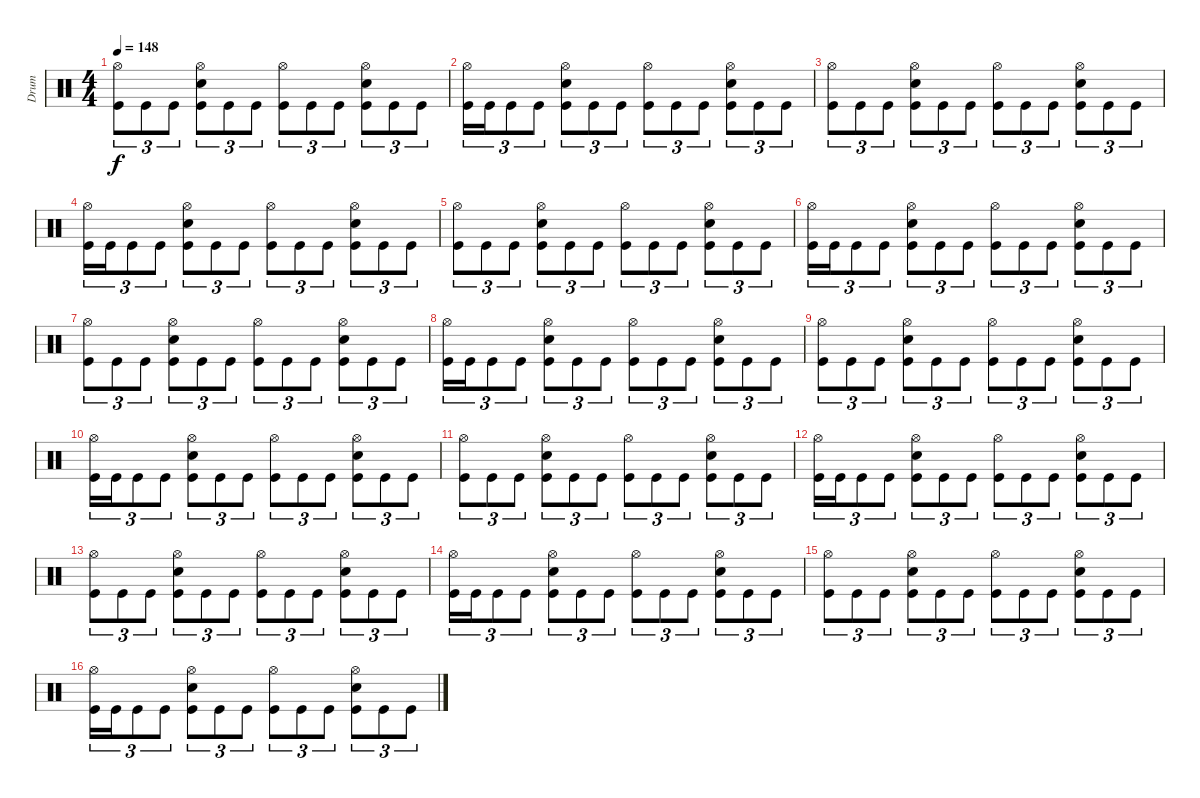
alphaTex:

\track ("Drum" "Drum") {instrument percussion}
\staff {score}
\articulation defaults
\ts (4 4)
\tempo 148
\clef neutral
\ks c
("Hi-Hat (open)" "Kick (hit)").8{tu (3 2) dy f} "Kick (hit)".8{tu (3 2)} "Kick (hit)".8{tu (3 2)} ("Hi-Hat (open)" "Snare (hit) 2" "Kick (hit)").8{tu (3 2)} "Kick (hit)".8{tu (3 2)} "Kick (hit)".8{tu (3 2)} ("Hi-Hat (open)" "Kick (hit)").8{tu (3 2)} "Kick (hit)".8{tu (3 2)} "Kick (hit)".8{tu (3 2)} ("Hi-Hat (open)" "Snare (hit) 2" "Kick (hit)").8{tu (3 2)} "Kick (hit)".8{tu (3 2)} "Kick (hit)".8{tu (3 2)} |
("Hi-Hat (open)" "Kick (hit)").16{tu (3 2)} "Kick (hit)".16{tu (3 2)} "Kick (hit)".8{tu (3 2)} "Kick (hit)".8{tu (3 2)} ("Hi-Hat (open)" "Snare (hit) 2" "Kick (hit)").8{tu (3 2)} "Kick (hit)".8{tu (3 2)} "Kick (hit)".8{tu (3 2)} ("Hi-Hat (open)" "Kick (hit)").8{tu (3 2)} "Kick (hit)".8{tu (3 2)} "Kick (hit)".8{tu (3 2)} ("Hi-Hat (open)" "Snare (hit) 2" "Kick (hit)").8{tu (3 2)} "Kick (hit)".8{tu (3 2)} "Kick (hit)".8{tu (3 2)} |
("Hi-Hat (open)" "Kick (hit)").8{tu (3 2)} "Kick (hit)".8{tu (3 2)} "Kick (hit)".8{tu (3 2)} ("Hi-Hat (open)" "Snare (hit) 2" "Kick (hit)").8{tu (3 2)} "Kick (hit)".8{tu (3 2)} "Kick (hit)".8{tu (3 2)} ("Hi-Hat (open)" "Kick (hit)").8{tu (3 2)} "Kick (hit)".8{tu (3 2)} "Kick (hit)".8{tu (3 2)} ("Hi-Hat (open)" "Snare (hit) 2" "Kick (hit)").8{tu (3 2)} "Kick (hit)".8{tu (3 2)} "Kick (hit)".8{tu (3 2)} |
("Hi-Hat (open)" "Kick (hit)").16{tu (3 2)} "Kick (hit)".16{tu (3 2)} "Kick (hit)".8{tu (3 2)} "Kick (hit)".8{tu (3 2)} ("Hi-Hat (open)" "Snare (hit) 2" "Kick (hit)").8{tu (3 2)} "Kick (hit)".8{tu (3 2)} "Kick (hit)".8{tu (3 2)} ("Hi-Hat (open)" "Kick (hit)").8{tu (3 2)} "Kick (hit)".8{tu (3 2)} "Kick (hit)".8{tu (3 2)} ("Hi-Hat (open)" "Snare (hit) 2" "Kick (hit)").8{tu (3 2)} "Kick (hit)".8{tu (3 2)} "Kick (hit)".8{tu (3 2)} |
("Hi-Hat (open)" "Kick (hit)").8{tu (3 2)} "Kick (hit)".8{tu (3 2)} "Kick (hit)".8{tu (3 2)} ("Hi-Hat (open)" "Snare (hit) 2" "Kick (hit)").8{tu (3 2)} "Kick (hit)".8{tu (3 2)} "Kick (hit)".8{tu (3 2)} ("Hi-Hat (open)" "Kick (hit)").8{tu (3 2)} "Kick (hit)".8{tu (3 2)} "Kick (hit)".8{tu (3 2)} ("Hi-Hat (open)" "Snare (hit) 2" "Kick (hit)").8{tu (3 2)} "Kick (hit)".8{tu (3 2)} "Kick (hit)".8{tu (3 2)} |
("Hi-Hat (open)" "Kick (hit)").16{tu (3 2)} "Kick (hit)".16{tu (3 2)} "Kick (hit)".8{tu (3 2)} "Kick (hit)".8{tu (3 2)} ("Hi-Hat (open)" "Snare (hit) 2" "Kick (hit)").8{tu (3 2)} "Kick (hit)".8{tu (3 2)} "Kick (hit)".8{tu (3 2)} ("Hi-Hat (open)" "Kick (hit)").8{tu (3 2)} "Kick (hit)".8{tu (3 2)} "Kick (hit)".8{tu (3 2)} ("Hi-Hat (open)" "Snare (hit) 2" "Kick (hit)").8{tu (3 2)} "Kick (hit)".8{tu (3 2)} "Kick (hit)".8{tu (3 2)} |
("Hi-Hat (open)" "Kick (hit)").8{tu (3 2)} "Kick (hit)".8{tu (3 2)} "Kick (hit)".8{tu (3 2)} ("Hi-Hat (open)" "Snare (hit) 2" "Kick (hit)").8{tu (3 2)} "Kick (hit)".8{tu (3 2)} "Kick (hit)".8{tu (3 2)} ("Hi-Hat (open)" "Kick (hit)").8{tu (3 2)} "Kick (hit)".8{tu (3 2)} "Kick (hit)".8{tu (3 2)} ("Hi-Hat (open)" "Snare (hit) 2" "Kick (hit)").8{tu (3 2)} "Kick (hit)".8{tu (3 2)} "Kick (hit)".8{tu (3 2)} |
("Hi-Hat (open)" "Kick (hit)").16{tu (3 2)} "Kick (hit)".16{tu (3 2)} "Kick (hit)".8{tu (3 2)} "Kick (hit)".8{tu (3 2)} ("Hi-Hat (open)" "Snare (hit) 2" "Kick (hit)").8{tu (3 2)} "Kick (hit)".8{tu (3 2)} "Kick (hit)".8{tu (3 2)} ("Hi-Hat (open)" "Kick (hit)").8{tu (3 2)} "Kick (hit)".8{tu (3 2)} "Kick (hit)".8{tu (3 2)} ("Hi-Hat (open)" "Snare (hit) 2" "Kick (hit)").8{tu (3 2)} "Kick (hit)".8{tu (3 2)} "Kick (hit)".8{tu (3 2)} |
("Hi-Hat (open)" "Kick (hit)").8{tu (3 2)} "Kick (hit)".8{tu (3 2)} "Kick (hit)".8{tu (3 2)} ("Hi-Hat (open)" "Snare (hit) 2" "Kick (hit)").8{tu (3 2)} "Kick (hit)".8{tu (3 2)} "Kick (hit)".8{tu (3 2)} ("Hi-Hat (open)" "Kick (hit)").8{tu (3 2)} "Kick (hit)".8{tu (3 2)} "Kick (hit)".8{tu (3 2)} ("Hi-Hat (open)" "Snare (hit) 2" "Kick (hit)").8{tu (3 2)} "Kick (hit)".8{tu (3 2)} "Kick (hit)".8{tu (3 2)} |
("Hi-Hat (open)" "Kick (hit)").16{tu (3 2)} "Kick (hit)".16{tu (3 2)} "Kick (hit)".8{tu (3 2)} "Kick (hit)".8{tu (3 2)} ("Hi-Hat (open)" "Snare (hit) 2" "Kick (hit)").8{tu (3 2)} "Kick (hit)".8{tu (3 2)} "Kick (hit)".8{tu (3 2)} ("Hi-Hat (open)" "Kick (hit)").8{tu (3 2)} "Kick (hit)".8{tu (3 2)} "Kick (hit)".8{tu (3 2)} ("Hi-Hat (open)" "Snare (hit) 2" "Kick (hit)").8{tu (3 2)} "Kick (hit)".8{tu (3 2)} "Kick (hit)".8{tu (3 2)} |
("Hi-Hat (open)" "Kick (hit)").8{tu (3 2)} "Kick (hit)".8{tu (3 2)} "Kick (hit)".8{tu (3 2)} ("Hi-Hat (open)" "Snare (hit) 2" "Kick (hit)").8{tu (3 2)} "Kick (hit)".8{tu (3 2)} "Kick (hit)".8{tu (3 2)} ("Hi-Hat (open)" "Kick (hit)").8{tu (3 2)} "Kick (hit)".8{tu (3 2)} "Kick (hit)".8{tu (3 2)} ("Hi-Hat (open)" "Snare (hit) 2" "Kick (hit)").8{tu (3 2)} "Kick (hit)".8{tu (3 2)} "Kick (hit)".8{tu (3 2)} |
("Hi-Hat (open)" "Kick (hit)").16{tu (3 2)} "Kick (hit)".16{tu (3 2)} "Kick (hit)".8{tu (3 2)} "Kick (hit)".8{tu (3 2)} ("Hi-Hat (open)" "Snare (hit) 2" "Kick (hit)").8{tu (3 2)} "Kick (hit)".8{tu (3 2)} "Kick (hit)".8{tu (3 2)} ("Hi-Hat (open)" "Kick (hit)").8{tu (3 2)} "Kick (hit)".8{tu (3 2)} "Kick (hit)".8{tu (3 2)} ("Hi-Hat (open)" "Snare (hit) 2" "Kick (hit)").8{tu (3 2)} "Kick (hit)".8{tu (3 2)} "Kick (hit)".8{tu (3 2)} |
("Hi-Hat (open)" "Kick (hit)").8{tu (3 2)} "Kick (hit)".8{tu (3 2)} "Kick (hit)".8{tu (3 2)} ("Hi-Hat (open)" "Snare (hit) 2" "Kick (hit)").8{tu (3 2)} "Kick (hit)".8{tu (3 2)} "Kick (hit)".8{tu (3 2)} ("Hi-Hat (open)" "Kick (hit)").8{tu (3 2)} "Kick (hit)".8{tu (3 2)} "Kick (hit)".8{tu (3 2)} ("Hi-Hat (open)" "Snare (hit) 2" "Kick (hit)").8{tu (3 2)} "Kick (hit)".8{tu (3 2)} "Kick (hit)".8{tu (3 2)} |
("Hi-Hat (open)" "Kick (hit)").16{tu (3 2)} "Kick (hit)".16{tu (3 2)} "Kick (hit)".8{tu (3 2)} "Kick (hit)".8{tu (3 2)} ("Hi-Hat (open)" "Snare (hit) 2" "Kick (hit)").8{tu (3 2)} "Kick (hit)".8{tu (3 2)} "Kick (hit)".8{tu (3 2)} ("Hi-Hat (open)" "Kick (hit)").8{tu (3 2)} "Kick (hit)".8{tu (3 2)} "Kick (hit)".8{tu (3 2)} ("Hi-Hat (open)" "Snare (hit) 2" "Kick (hit)").8{tu (3 2)} "Kick (hit)".8{tu (3 2)} "Kick (hit)".8{tu (3 2)} |
("Hi-Hat (open)" "Kick (hit)").8{tu (3 2)} "Kick (hit)".8{tu (3 2)} "Kick (hit)".8{tu (3 2)} ("Hi-Hat (open)" "Snare (hit) 2" "Kick (hit)").8{tu (3 2)} "Kick (hit)".8{tu (3 2)} "Kick (hit)".8{tu (3 2)} ("Hi-Hat (open)" "Kick (hit)").8{tu (3 2)} "Kick (hit)".8{tu (3 2)} "Kick (hit)".8{tu (3 2)} ("Hi-Hat (open)" "Snare (hit) 2" "Kick (hit)").8{tu (3 2)} "Kick (hit)".8{tu (3 2)} "Kick (hit)".8{tu (3 2)} |
("Hi-Hat (open)" "Kick (hit)").16{tu (3 2)} "Kick (hit)".16{tu (3 2)} "Kick (hit)".8{tu (3 2)} "Kick (hit)".8{tu (3 2)} ("Hi-Hat (open)" "Snare (hit) 2" "Kick (hit)").8{tu (3 2)} "Kick (hit)".8{tu (3 2)} "Kick (hit)".8{tu (3 2)} ("Hi-Hat (open)" "Kick (hit)").8{tu (3 2)} "Kick (hit)".8{tu (3 2)} "Kick (hit)".8{tu (3 2)} ("Hi-Hat (open)" "Snare (hit) 2" "Kick (hit)").8{tu (3 2)} "Kick (hit)".8{tu (3 2)} "Kick (hit)".8{tu (3 2)}
